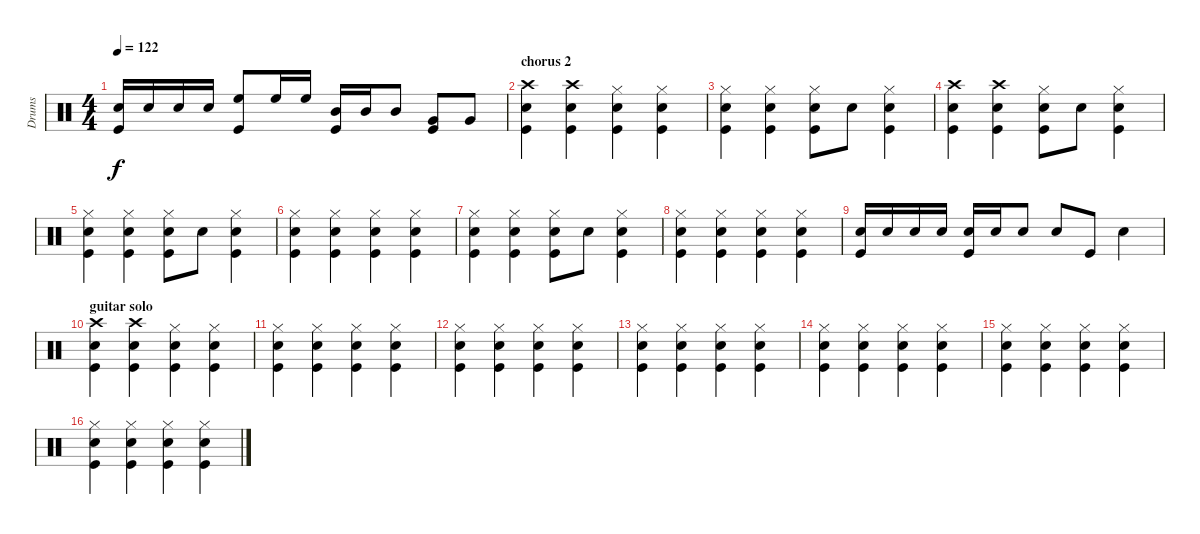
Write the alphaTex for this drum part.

\track ("Drums" "Drums") {instrument percussion}
\staff {score}
\articulation defaults
\ts (4 4)
\tempo 122
\clef neutral
\ks c
("Electric Snare (hit)" "Kick (hit)").16{dy f} "Electric Snare (hit)".16 "Electric Snare (hit)".16 "Electric Snare (hit)".16 ("High Floor Tom (hit)" "Kick (hit)").8 "High Floor Tom (hit)".16 "High Floor Tom (hit)".16 ("Mid Tom (hit)" "Kick (hit)").16 "Mid Tom (hit)".16 "Mid Tom (hit)".8 ("Very Low Tom (hit)" "Kick (hit)").8 "Very Low Tom (hit)".8 |
\section ("" "chorus 2")
("Crash high (hit)" "Electric Snare (hit)" "Kick (hit)").4 ("Crash high (hit)" "Electric Snare (hit)" "Kick (hit)").4 ("Hi-Hat (closed)" "Electric Snare (hit)" "Kick (hit)").4 ("Hi-Hat (closed)" "Electric Snare (hit)" "Kick (hit)").4 |
("Hi-Hat (closed)" "Electric Snare (hit)" "Kick (hit)").4 ("Hi-Hat (closed)" "Electric Snare (hit)" "Kick (hit)").4 ("Hi-Hat (closed)" "Electric Snare (hit)" "Kick (hit)").8 "Electric Snare (hit)".8 ("Hi-Hat (closed)" "Electric Snare (hit)" "Kick (hit)").4 |
("Crash high (hit)" "Electric Snare (hit)" "Kick (hit)").4 ("Crash high (hit)" "Electric Snare (hit)" "Kick (hit)").4 ("Hi-Hat (closed)" "Electric Snare (hit)" "Kick (hit)").8 "Electric Snare (hit)".8 ("Hi-Hat (closed)" "Electric Snare (hit)" "Kick (hit)").4 |
("Hi-Hat (closed)" "Electric Snare (hit)" "Kick (hit)").4 ("Hi-Hat (closed)" "Electric Snare (hit)" "Kick (hit)").4 ("Hi-Hat (closed)" "Electric Snare (hit)" "Kick (hit)").8 "Electric Snare (hit)".8 ("Hi-Hat (closed)" "Electric Snare (hit)" "Kick (hit)").4 |
("Hi-Hat (closed)" "Electric Snare (hit)" "Kick (hit)").4 ("Hi-Hat (closed)" "Electric Snare (hit)" "Kick (hit)").4 ("Hi-Hat (closed)" "Electric Snare (hit)" "Kick (hit)").4 ("Hi-Hat (closed)" "Electric Snare (hit)" "Kick (hit)").4 |
("Hi-Hat (closed)" "Electric Snare (hit)" "Kick (hit)").4 ("Hi-Hat (closed)" "Electric Snare (hit)" "Kick (hit)").4 ("Hi-Hat (closed)" "Electric Snare (hit)" "Kick (hit)").8 "Electric Snare (hit)".8 ("Hi-Hat (closed)" "Electric Snare (hit)" "Kick (hit)").4 |
("Hi-Hat (closed)" "Electric Snare (hit)" "Kick (hit)").4 ("Hi-Hat (closed)" "Electric Snare (hit)" "Kick (hit)").4 ("Hi-Hat (closed)" "Electric Snare (hit)" "Kick (hit)").4 ("Hi-Hat (closed)" "Electric Snare (hit)" "Kick (hit)").4 |
("Electric Snare (hit)" "Kick (hit)").16 "Electric Snare (hit)".16 "Electric Snare (hit)".16 "Electric Snare (hit)".16 ("Electric Snare (hit)" "Kick (hit)").16 "Electric Snare (hit)".16 "Electric Snare (hit)".8 "Electric Snare (hit)".8 "Kick (hit)".8 "Electric Snare (hit)".4 |
\section ("" "guitar solo")
("Crash high (hit)" "Electric Snare (hit)" "Kick (hit)").4 ("Crash high (hit)" "Electric Snare (hit)" "Kick (hit)").4 ("Hi-Hat (closed)" "Electric Snare (hit)" "Kick (hit)").4 ("Hi-Hat (closed)" "Electric Snare (hit)" "Kick (hit)").4 |
("Hi-Hat (closed)" "Electric Snare (hit)" "Kick (hit)").4 ("Hi-Hat (closed)" "Electric Snare (hit)" "Kick (hit)").4 ("Hi-Hat (closed)" "Electric Snare (hit)" "Kick (hit)").4 ("Hi-Hat (closed)" "Electric Snare (hit)" "Kick (hit)").4 |
("Hi-Hat (closed)" "Electric Snare (hit)" "Kick (hit)").4 ("Hi-Hat (closed)" "Electric Snare (hit)" "Kick (hit)").4 ("Hi-Hat (closed)" "Electric Snare (hit)" "Kick (hit)").4 ("Hi-Hat (closed)" "Electric Snare (hit)" "Kick (hit)").4 |
("Hi-Hat (closed)" "Electric Snare (hit)" "Kick (hit)").4 ("Hi-Hat (closed)" "Electric Snare (hit)" "Kick (hit)").4 ("Hi-Hat (closed)" "Electric Snare (hit)" "Kick (hit)").4 ("Hi-Hat (closed)" "Electric Snare (hit)" "Kick (hit)").4 |
("Hi-Hat (closed)" "Electric Snare (hit)" "Kick (hit)").4 ("Hi-Hat (closed)" "Electric Snare (hit)" "Kick (hit)").4 ("Hi-Hat (closed)" "Electric Snare (hit)" "Kick (hit)").4 ("Hi-Hat (closed)" "Electric Snare (hit)" "Kick (hit)").4 |
("Hi-Hat (closed)" "Electric Snare (hit)" "Kick (hit)").4 ("Hi-Hat (closed)" "Electric Snare (hit)" "Kick (hit)").4 ("Hi-Hat (closed)" "Electric Snare (hit)" "Kick (hit)").4 ("Hi-Hat (closed)" "Electric Snare (hit)" "Kick (hit)").4 |
("Hi-Hat (closed)" "Electric Snare (hit)" "Kick (hit)").4 ("Hi-Hat (closed)" "Electric Snare (hit)" "Kick (hit)").4 ("Hi-Hat (closed)" "Electric Snare (hit)" "Kick (hit)").4 ("Hi-Hat (closed)" "Electric Snare (hit)" "Kick (hit)").4
